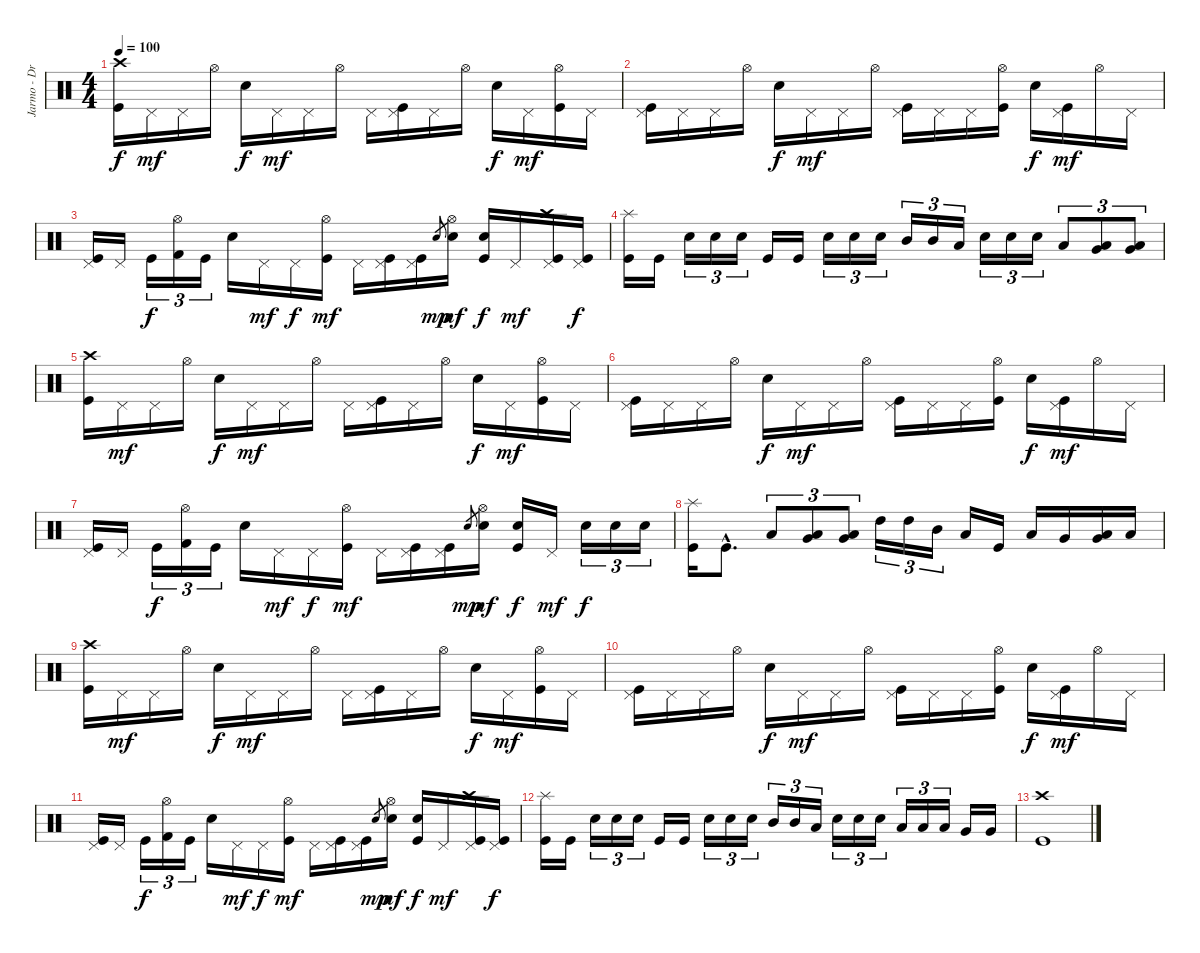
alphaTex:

\track ("Jarmo - Drums" "Jarmo - Dr") {instrument percussion}
\staff {score}
\articulation defaults
\ts (4 4)
\tempo 100
\clef neutral
\ks c
("Kick (hit)" "Crash high (hit)").16{dy f} "Pedal Hi-Hat (hit)".16{dy mf} "Pedal Hi-Hat (hit)".16 "Hi-Hat (open)".16 "Electric Snare (hit)".16{dy f} "Pedal Hi-Hat (hit)".16{dy mf} "Pedal Hi-Hat (hit)".16 "Hi-Hat (open)".16 "Pedal Hi-Hat (hit)".16 ("Kick (hit)" "Pedal Hi-Hat (hit)").16 "Pedal Hi-Hat (hit)".16 "Hi-Hat (open)".16 "Electric Snare (hit)".16{dy f} "Pedal Hi-Hat (hit)".16{dy mf} ("Kick (hit)" "Hi-Hat (open)").16 "Pedal Hi-Hat (hit)".16 |
("Kick (hit)" "Pedal Hi-Hat (hit)").16 "Pedal Hi-Hat (hit)".16 "Pedal Hi-Hat (hit)".16 "Hi-Hat (open)".16 "Electric Snare (hit)".16{dy f} "Pedal Hi-Hat (hit)".16{dy mf} "Pedal Hi-Hat (hit)".16 "Hi-Hat (open)".16 ("Kick (hit)" "Pedal Hi-Hat (hit)").16 "Pedal Hi-Hat (hit)".16 "Pedal Hi-Hat (hit)".16 ("Kick (hit)" "Hi-Hat (open)").16 "Electric Snare (hit)".16{dy f} ("Kick (hit)" "Pedal Hi-Hat (hit)").16{dy mf} "Hi-Hat (open)".16 "Pedal Hi-Hat (hit)".16 |
("Kick (hit)" "Pedal Hi-Hat (hit)").16 "Pedal Hi-Hat (hit)".16 "Kick (hit)".16{tu (3 2) dy f} ("Kick (hit) 2" "Hi-Hat (open)").16{tu (3 2)} "Kick (hit)".16{tu (3 2)} "Electric Snare (hit)".16 "Pedal Hi-Hat (hit)".16{dy mf} "Pedal Hi-Hat (hit)".16{dy f} ("Kick (hit)" "Hi-Hat (open)").16{dy mf} "Pedal Hi-Hat (hit)".16 ("Kick (hit)" "Pedal Hi-Hat (hit)").16 ("Kick (hit)" "Pedal Hi-Hat (hit)").16 "Snare (hit) 2".8{gr dy mp} ("Electric Snare (hit)" "Hi-Hat (open)").16{dy mf} ("Kick (hit)" "Electric Snare (hit)").16{dy f} "Pedal Hi-Hat (hit)".16{dy mf} ("Kick (hit)" "Pedal Hi-Hat (hit)" "Crash high (hit)").16 ("Kick (hit)" "Pedal Hi-Hat (hit)").16{dy f} |
("Kick (hit)" "Splash (hit)").16 "Kick (hit)".16 "Electric Snare (hit)".16{tu (3 2)} "Electric Snare (hit)".16{tu (3 2)} "Electric Snare (hit)".16{tu (3 2)} "Kick (hit)".16 "Kick (hit)".16 "Electric Snare (hit)".16{tu (3 2)} "Electric Snare (hit)".16{tu (3 2)} "Electric Snare (hit)".16{tu (3 2)} "Mid Tom (hit)".16{tu (3 2)} "Mid Tom (hit)".16{tu (3 2)} "Low Tom (hit)".16{tu (3 2)} "Electric Snare (hit)".16{tu (3 2)} "Electric Snare (hit)".16{tu (3 2)} "Electric Snare (hit)".16{tu (3 2)} "Low Tom (hit)".8{tu (3 2)} ("Low Tom (hit)" "Very Low Tom (hit)").8{tu (3 2)} ("Low Tom (hit)" "Very Low Tom (hit)").8{tu (3 2)} |
("Kick (hit)" "Crash high (hit)").16 "Pedal Hi-Hat (hit)".16{dy mf} "Pedal Hi-Hat (hit)".16 "Hi-Hat (open)".16 "Electric Snare (hit)".16{dy f} "Pedal Hi-Hat (hit)".16{dy mf} "Pedal Hi-Hat (hit)".16 "Hi-Hat (open)".16 "Pedal Hi-Hat (hit)".16 ("Kick (hit)" "Pedal Hi-Hat (hit)").16 "Pedal Hi-Hat (hit)".16 "Hi-Hat (open)".16 "Electric Snare (hit)".16{dy f} "Pedal Hi-Hat (hit)".16{dy mf} ("Kick (hit)" "Hi-Hat (open)").16 "Pedal Hi-Hat (hit)".16 |
("Kick (hit)" "Pedal Hi-Hat (hit)").16 "Pedal Hi-Hat (hit)".16 "Pedal Hi-Hat (hit)".16 "Hi-Hat (open)".16 "Electric Snare (hit)".16{dy f} "Pedal Hi-Hat (hit)".16{dy mf} "Pedal Hi-Hat (hit)".16 "Hi-Hat (open)".16 ("Kick (hit)" "Pedal Hi-Hat (hit)").16 "Pedal Hi-Hat (hit)".16 "Pedal Hi-Hat (hit)".16 ("Kick (hit)" "Hi-Hat (open)").16 "Electric Snare (hit)".16{dy f} ("Kick (hit)" "Pedal Hi-Hat (hit)").16{dy mf} "Hi-Hat (open)".16 "Pedal Hi-Hat (hit)".16 |
("Kick (hit)" "Pedal Hi-Hat (hit)").16 "Pedal Hi-Hat (hit)".16 "Kick (hit)".16{tu (3 2) dy f} ("Kick (hit) 2" "Hi-Hat (open)").16{tu (3 2)} "Kick (hit)".16{tu (3 2)} "Electric Snare (hit)".16 "Pedal Hi-Hat (hit)".16{dy mf} "Pedal Hi-Hat (hit)".16{dy f} ("Kick (hit)" "Hi-Hat (open)").16{dy mf} "Pedal Hi-Hat (hit)".16 ("Kick (hit)" "Pedal Hi-Hat (hit)").16 ("Kick (hit)" "Pedal Hi-Hat (hit)").16 "Snare (hit) 2".8{gr dy mp} ("Electric Snare (hit)" "Hi-Hat (open)").16{dy mf} ("Kick (hit)" "Electric Snare (hit)").16{dy f} "Pedal Hi-Hat (hit)".16{dy mf} "Electric Snare (hit)".16{tu (3 2) dy f} "Electric Snare (hit)".16{tu (3 2)} "Electric Snare (hit)".16{tu (3 2)} |
("Kick (hit)" "Splash (hit)").16 "Kick (hit)"{hac}.8{d} "Low Tom (hit)".8{tu (3 2)} ("Low Tom (hit)" "Very Low Tom (hit)").8{tu (3 2)} ("Low Tom (hit)" "Very Low Tom (hit)").8{tu (3 2)} "High Tom (hit)".16{tu (3 2)} "High Tom (hit)".16{tu (3 2)} "Mid Tom (hit)".16{tu (3 2)} "Low Tom (hit)".16 "Kick (hit)".16 "Low Tom (hit)".16 "Very Low Tom (hit)".16 ("Low Tom (hit)" "Very Low Tom (hit)").16 "Low Tom (hit)".16 |
("Kick (hit)" "Crash high (hit)").16 "Pedal Hi-Hat (hit)".16{dy mf} "Pedal Hi-Hat (hit)".16 "Hi-Hat (open)".16 "Electric Snare (hit)".16{dy f} "Pedal Hi-Hat (hit)".16{dy mf} "Pedal Hi-Hat (hit)".16 "Hi-Hat (open)".16 "Pedal Hi-Hat (hit)".16 ("Kick (hit)" "Pedal Hi-Hat (hit)").16 "Pedal Hi-Hat (hit)".16 "Hi-Hat (open)".16 "Electric Snare (hit)".16{dy f} "Pedal Hi-Hat (hit)".16{dy mf} ("Kick (hit)" "Hi-Hat (open)").16 "Pedal Hi-Hat (hit)".16 |
("Kick (hit)" "Pedal Hi-Hat (hit)").16 "Pedal Hi-Hat (hit)".16 "Pedal Hi-Hat (hit)".16 "Hi-Hat (open)".16 "Electric Snare (hit)".16{dy f} "Pedal Hi-Hat (hit)".16{dy mf} "Pedal Hi-Hat (hit)".16 "Hi-Hat (open)".16 ("Kick (hit)" "Pedal Hi-Hat (hit)").16 "Pedal Hi-Hat (hit)".16 "Pedal Hi-Hat (hit)".16 ("Kick (hit)" "Hi-Hat (open)").16 "Electric Snare (hit)".16{dy f} ("Kick (hit)" "Pedal Hi-Hat (hit)").16{dy mf} "Hi-Hat (open)".16 "Pedal Hi-Hat (hit)".16 |
("Kick (hit)" "Pedal Hi-Hat (hit)").16 "Pedal Hi-Hat (hit)".16 "Kick (hit)".16{tu (3 2) dy f} ("Kick (hit) 2" "Hi-Hat (open)").16{tu (3 2)} "Kick (hit)".16{tu (3 2)} "Electric Snare (hit)".16 "Pedal Hi-Hat (hit)".16{dy mf} "Pedal Hi-Hat (hit)".16{dy f} ("Kick (hit)" "Hi-Hat (open)").16{dy mf} "Pedal Hi-Hat (hit)".16 ("Kick (hit)" "Pedal Hi-Hat (hit)").16 ("Kick (hit)" "Pedal Hi-Hat (hit)").16 "Snare (hit) 2".8{gr dy mp} ("Electric Snare (hit)" "Hi-Hat (open)").16{dy mf} ("Kick (hit)" "Electric Snare (hit)").16{dy f} "Pedal Hi-Hat (hit)".16{dy mf} ("Kick (hit)" "Pedal Hi-Hat (hit)" "Crash high (hit)").16 ("Kick (hit)" "Pedal Hi-Hat (hit)").16{dy f} |
("Kick (hit)" "Splash (hit)").16 "Kick (hit)".16 "Electric Snare (hit)".16{tu (3 2)} "Electric Snare (hit)".16{tu (3 2)} "Electric Snare (hit)".16{tu (3 2)} "Kick (hit)".16 "Kick (hit)".16 "Electric Snare (hit)".16{tu (3 2)} "Electric Snare (hit)".16{tu (3 2)} "Electric Snare (hit)".16{tu (3 2)} "Mid Tom (hit)".16{tu (3 2)} "Mid Tom (hit)".16{tu (3 2)} "Low Tom (hit)".16{tu (3 2)} "Electric Snare (hit)".16{tu (3 2)} "Electric Snare (hit)".16{tu (3 2)} "Electric Snare (hit)".16{tu (3 2)} "Low Tom (hit)".16{tu (3 2)} "Low Tom (hit)".16{tu (3 2)} "Low Tom (hit)".16{tu (3 2)} "Very Low Tom (hit)".16 "Very Low Tom (hit)".16 |
("Kick (hit)" "Crash high (hit)").1
